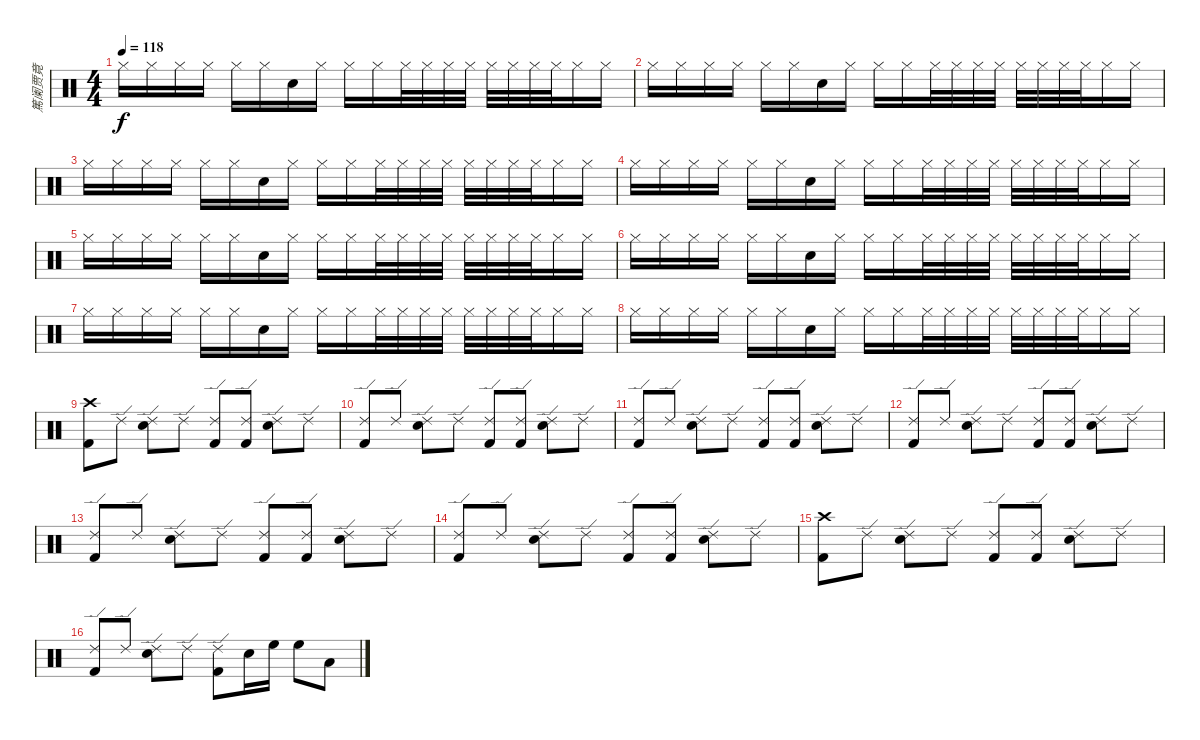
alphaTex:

\track ("篤阑贾竟" "篤阑贾竟") {instrument percussion}
\staff {score}
\articulation defaults
\ts (4 4)
\tempo 118
\clef neutral
\ks c "Hi-Hat (closed)".16{dy f} "Hi-Hat (closed)".16 "Hi-Hat (closed)".16 "Hi-Hat (closed)".16 "Hi-Hat (closed)".16 "Hi-Hat (closed)".16 "Snare (hit) 2".16 "Hi-Hat (closed)".16 "Hi-Hat (closed)".16 "Hi-Hat (closed)".16 "Hi-Hat (closed)".32 "Hi-Hat (closed)".32 "Hi-Hat (closed)".32 "Hi-Hat (closed)".32 "Hi-Hat (closed)".32 "Hi-Hat (closed)".32 "Hi-Hat (closed)".32 "Hi-Hat (closed)".32 "Hi-Hat (closed)".16 "Hi-Hat (closed)".16
|
"Hi-Hat (closed)".16 "Hi-Hat (closed)".16 "Hi-Hat (closed)".16 "Hi-Hat (closed)".16 "Hi-Hat (closed)".16 "Hi-Hat (closed)".16 "Snare (hit) 2".16 "Hi-Hat (closed)".16 "Hi-Hat (closed)".16 "Hi-Hat (closed)".16 "Hi-Hat (closed)".32 "Hi-Hat (closed)".32 "Hi-Hat (closed)".32 "Hi-Hat (closed)".32 "Hi-Hat (closed)".32 "Hi-Hat (closed)".32 "Hi-Hat (closed)".32 "Hi-Hat (closed)".32 "Hi-Hat (closed)".16 "Hi-Hat (closed)".16 |
"Hi-Hat (closed)".16 "Hi-Hat (closed)".16 "Hi-Hat (closed)".16 "Hi-Hat (closed)".16 "Hi-Hat (closed)".16 "Hi-Hat (closed)".16 "Snare (hit) 2".16 "Hi-Hat (closed)".16 "Hi-Hat (closed)".16 "Hi-Hat (closed)".16 "Hi-Hat (closed)".32 "Hi-Hat (closed)".32 "Hi-Hat (closed)".32 "Hi-Hat (closed)".32 "Hi-Hat (closed)".32 "Hi-Hat (closed)".32 "Hi-Hat (closed)".32 "Hi-Hat (closed)".32 "Hi-Hat (closed)".16 "Hi-Hat (closed)".16 |
"Hi-Hat (closed)".16 "Hi-Hat (closed)".16 "Hi-Hat (closed)".16 "Hi-Hat (closed)".16 "Hi-Hat (closed)".16 "Hi-Hat (closed)".16 "Snare (hit) 2".16 "Hi-Hat (closed)".16 "Hi-Hat (closed)".16 "Hi-Hat (closed)".16 "Hi-Hat (closed)".32 "Hi-Hat (closed)".32 "Hi-Hat (closed)".32 "Hi-Hat (closed)".32 "Hi-Hat (closed)".32 "Hi-Hat (closed)".32 "Hi-Hat (closed)".32 "Hi-Hat (closed)".32 "Hi-Hat (closed)".16 "Hi-Hat (closed)".16 |
"Hi-Hat (closed)".16 "Hi-Hat (closed)".16 "Hi-Hat (closed)".16 "Hi-Hat (closed)".16 "Hi-Hat (closed)".16 "Hi-Hat (closed)".16 "Snare (hit) 2".16 "Hi-Hat (closed)".16 "Hi-Hat (closed)".16 "Hi-Hat (closed)".16 "Hi-Hat (closed)".32 "Hi-Hat (closed)".32 "Hi-Hat (closed)".32 "Hi-Hat (closed)".32 "Hi-Hat (closed)".32 "Hi-Hat (closed)".32 "Hi-Hat (closed)".32 "Hi-Hat (closed)".32 "Hi-Hat (closed)".16 "Hi-Hat (closed)".16 |
"Hi-Hat (closed)".16 "Hi-Hat (closed)".16 "Hi-Hat (closed)".16 "Hi-Hat (closed)".16 "Hi-Hat (closed)".16 "Hi-Hat (closed)".16 "Snare (hit) 2".16 "Hi-Hat (closed)".16 "Hi-Hat (closed)".16 "Hi-Hat (closed)".16 "Hi-Hat (closed)".32 "Hi-Hat (closed)".32 "Hi-Hat (closed)".32 "Hi-Hat (closed)".32 "Hi-Hat (closed)".32 "Hi-Hat (closed)".32 "Hi-Hat (closed)".32 "Hi-Hat (closed)".32 "Hi-Hat (closed)".16 "Hi-Hat (closed)".16 |
"Hi-Hat (closed)".16 "Hi-Hat (closed)".16 "Hi-Hat (closed)".16 "Hi-Hat (closed)".16 "Hi-Hat (closed)".16 "Hi-Hat (closed)".16 "Snare (hit) 2".16 "Hi-Hat (closed)".16 "Hi-Hat (closed)".16 "Hi-Hat (closed)".16 "Hi-Hat (closed)".32 "Hi-Hat (closed)".32 "Hi-Hat (closed)".32 "Hi-Hat (closed)".32 "Hi-Hat (closed)".32 "Hi-Hat (closed)".32 "Hi-Hat (closed)".32 "Hi-Hat (closed)".32 "Hi-Hat (closed)".16 "Hi-Hat (closed)".16 |
"Hi-Hat (closed)".16 "Hi-Hat (closed)".16 "Hi-Hat (closed)".16 "Hi-Hat (closed)".16 "Hi-Hat (closed)".16 "Hi-Hat (closed)".16 "Snare (hit) 2".16 "Hi-Hat (closed)".16 "Hi-Hat (closed)".16 "Hi-Hat (closed)".16 "Hi-Hat (closed)".32 "Hi-Hat (closed)".32 "Hi-Hat (closed)".32 "Hi-Hat (closed)".32 "Hi-Hat (closed)".32 "Hi-Hat (closed)".32 "Hi-Hat (closed)".32 "Hi-Hat (closed)".32 "Hi-Hat (closed)".16 "Hi-Hat (closed)".16 |
("Crash high (hit)" "Kick (hit) 2").8 "Ride (edge) 2".8 ("Ride (edge) 2" "Snare (hit) 2").8 "Ride (edge) 2".8 ("Ride (edge) 2" "Kick (hit) 2").8 ("Ride (edge) 2" "Kick (hit) 2").8 ("Ride (edge) 2" "Snare (hit) 2").8 "Ride (edge) 2".8 |
("Ride (edge) 2" "Kick (hit) 2").8 "Ride (edge) 2".8 ("Ride (edge) 2" "Snare (hit) 2").8 "Ride (edge) 2".8 ("Ride (edge) 2" "Kick (hit) 2").8 ("Ride (edge) 2" "Kick (hit) 2").8 ("Ride (edge) 2" "Snare (hit) 2").8 "Ride (edge) 2".8 |
("Ride (edge) 2" "Kick (hit) 2").8 "Ride (edge) 2".8 ("Ride (edge) 2" "Snare (hit) 2").8 "Ride (edge) 2".8 ("Ride (edge) 2" "Kick (hit) 2").8 ("Ride (edge) 2" "Kick (hit) 2").8 ("Ride (edge) 2" "Snare (hit) 2").8 "Ride (edge) 2".8 |
("Ride (edge) 2" "Kick (hit) 2").8 "Ride (edge) 2".8 ("Ride (edge) 2" "Snare (hit) 2").8 "Ride (edge) 2".8 ("Ride (edge) 2" "Kick (hit) 2").8 ("Ride (edge) 2" "Kick (hit) 2").8 ("Ride (edge) 2" "Snare (hit) 2").8 "Ride (edge) 2".8 |
("Ride (edge) 2" "Kick (hit) 2").8 "Ride (edge) 2".8 ("Ride (edge) 2" "Snare (hit) 2").8 "Ride (edge) 2".8 ("Ride (edge) 2" "Kick (hit) 2").8 ("Ride (edge) 2" "Kick (hit) 2").8 ("Ride (edge) 2" "Snare (hit) 2").8 "Ride (edge) 2".8 |
("Ride (edge) 2" "Kick (hit) 2").8 "Ride (edge) 2".8 ("Ride (edge) 2" "Snare (hit) 2").8 "Ride (edge) 2".8 ("Ride (edge) 2" "Kick (hit) 2").8 ("Ride (edge) 2" "Kick (hit) 2").8 ("Ride (edge) 2" "Snare (hit) 2").8 "Ride (edge) 2".8 |
("Crash high (hit)" "Kick (hit) 2").8 "Ride (edge) 2".8 ("Ride (edge) 2" "Snare (hit) 2").8 "Ride (edge) 2".8 ("Ride (edge) 2" "Kick (hit) 2").8 ("Ride (edge) 2" "Kick (hit) 2").8 ("Ride (edge) 2" "Snare (hit) 2").8 "Ride (edge) 2".8 |
("Ride (edge) 2" "Kick (hit) 2").8 "Ride (edge) 2".8 ("Ride (edge) 2" "Snare (hit) 2").8 "Ride (edge) 2".8 ("Ride (edge) 2" "Kick (hit) 2").8 "Snare (hit) 2".16 "High Floor Tom (hit)".16 "High Floor Tom (hit)".8 "Low Tom (hit)".8
